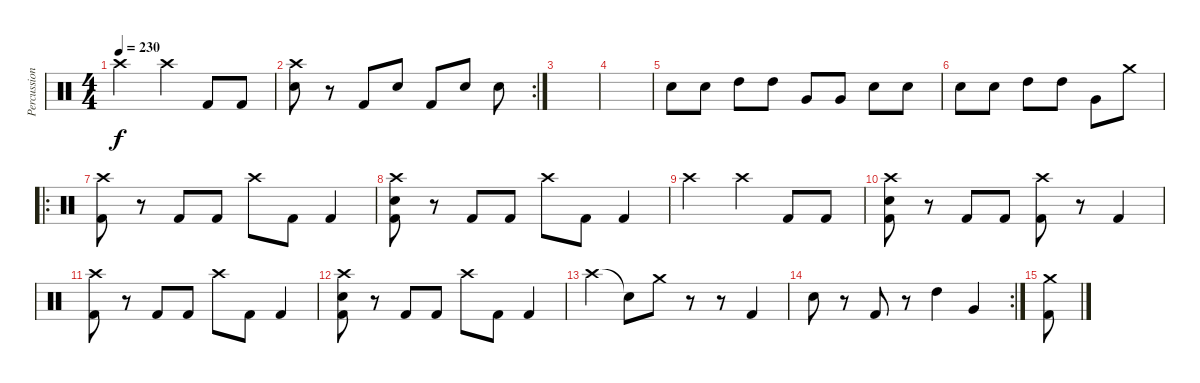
\track ("Percussion" "Percussion") {instrument percussion}
\staff {score}
\articulation defaults
\ts (4 4)
\tempo 230
\clef neutral
\ks c "Crash high (hit)".2{dy f} "Crash high (hit)".4 "Kick (hit) 2".8 "Kick (hit) 2".8
|
\rc 2
("Crash high (hit)" "Electric Snare (hit)").8 r.8 "Kick (hit) 2".8 "Electric Snare (hit)".8 "Kick (hit) 2".8 "Electric Snare (hit)".8 "Electric Snare (hit)".8 |
|
|
"Electric Snare (hit)".8 "Electric Snare (hit)".8 "High Tom (hit)".8 "High Tom (hit)".8 "Very Low Tom (hit)".8 "Very Low Tom (hit)".8 "Electric Snare (hit)".8 "Electric Snare (hit)".8 |
"Electric Snare (hit)".8 "Electric Snare (hit)".8 "High Tom (hit)".8 "High Tom (hit)".8 "Very Low Tom (hit)".8 "Crash medium (hit)".8 |
\ro
("Crash high (hit)" "Kick (hit) 2").8 r.8 "Kick (hit) 2".8 "Kick (hit) 2".8 "Crash high (hit)".8 "Kick (hit) 2".8 "Kick (hit) 2".4 |
("Crash high (hit)" "Electric Snare (hit)" "Kick (hit) 2").8 r.8 "Kick (hit) 2".8 "Kick (hit) 2".8 "Crash high (hit)".8 "Kick (hit) 2".8 "Kick (hit) 2".4 |
"Crash high (hit)".2 "Crash high (hit)".4 "Kick (hit) 2".8 "Kick (hit) 2".8 |
("Crash high (hit)" "Electric Snare (hit)" "Kick (hit) 2").8 r.8 "Kick (hit) 2".8 "Kick (hit) 2".8 ("Crash high (hit)" "Kick (hit) 2").8 r.8 "Kick (hit) 2".4 |
("Crash high (hit)" "Kick (hit) 2").8 r.8 "Kick (hit) 2".8 "Kick (hit) 2".8 "Crash high (hit)".8 "Kick (hit) 2".8 "Kick (hit) 2".4 |
("Crash high (hit)" "Electric Snare (hit)" "Kick (hit) 2").8 r.8 "Kick (hit) 2".8 "Kick (hit) 2".8 "Crash high (hit)".8 "Kick (hit) 2".8 "Kick (hit) 2".4 |
"Crash high (hit)".4 "Snare (hit)"{t}.8 "Crash medium (hit)".8 r.8 r.8 "Kick (hit) 2".4 |
\rc 2 "Electric Snare (hit)".8
r.8 "Kick (hit) 2".8 r.8 "High Tom (hit)".4 "Very Low Tom (hit)".4 |
("Crash medium (hit)" "Kick (hit) 2").8
